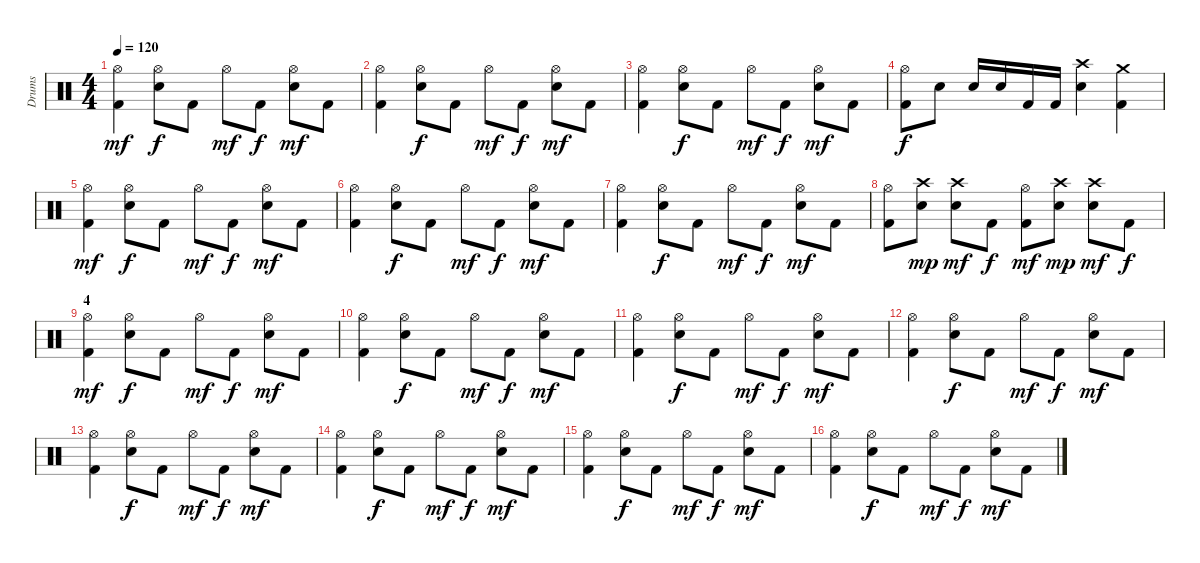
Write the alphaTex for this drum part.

\track ("Drums" "Drums") {instrument percussion}
\staff {score}
\articulation defaults
\ts (4 4)
\tempo 120
\clef neutral
\ks c
("Kick (hit) 2" "Hi-Hat (open)").4{dy mf} ("Hi-Hat (open)" "Electric Snare (hit)").8{dy f} "Kick (hit) 2".8 "Hi-Hat (open)".8{dy mf} "Kick (hit) 2".8{dy f} ("Electric Snare (hit)" "Hi-Hat (open)").8{dy mf} "Kick (hit) 2".8 |
("Kick (hit) 2" "Hi-Hat (open)").4 ("Hi-Hat (open)" "Electric Snare (hit)").8{dy f} "Kick (hit) 2".8 "Hi-Hat (open)".8{dy mf} "Kick (hit) 2".8{dy f} ("Electric Snare (hit)" "Hi-Hat (open)").8{dy mf} "Kick (hit) 2".8 |
("Kick (hit) 2" "Hi-Hat (open)").4 ("Hi-Hat (open)" "Electric Snare (hit)").8{dy f} "Kick (hit) 2".8 "Hi-Hat (open)".8{dy mf} "Kick (hit) 2".8{dy f} ("Electric Snare (hit)" "Hi-Hat (open)").8{dy mf} "Kick (hit) 2".8 |
("Kick (hit) 2" "Hi-Hat (open)").8{dy f} "Electric Snare (hit)".8 "Electric Snare (hit)".16 "Electric Snare (hit)".16 "Kick (hit) 2".16 "Kick (hit) 2".16 ("Crash high (hit)" "Electric Snare (hit)").4 ("Kick (hit) 2" "Crash medium (hit)").4 |
("Kick (hit) 2" "Hi-Hat (open)").4{dy mf} ("Hi-Hat (open)" "Electric Snare (hit)").8{dy f} "Kick (hit) 2".8 "Hi-Hat (open)".8{dy mf} "Kick (hit) 2".8{dy f} ("Electric Snare (hit)" "Hi-Hat (open)").8{dy mf} "Kick (hit) 2".8 |
("Kick (hit) 2" "Hi-Hat (open)").4 ("Hi-Hat (open)" "Electric Snare (hit)").8{dy f} "Kick (hit) 2".8 "Hi-Hat (open)".8{dy mf} "Kick (hit) 2".8{dy f} ("Electric Snare (hit)" "Hi-Hat (open)").8{dy mf} "Kick (hit) 2".8 |
("Kick (hit) 2" "Hi-Hat (open)").4 ("Hi-Hat (open)" "Electric Snare (hit)").8{dy f} "Kick (hit) 2".8 "Hi-Hat (open)".8{dy mf} "Kick (hit) 2".8{dy f} ("Electric Snare (hit)" "Hi-Hat (open)").8{dy mf} "Kick (hit) 2".8 |
("Kick (hit) 2" "Hi-Hat (open)").8 ("Electric Snare (hit)" "Crash high (hit)").8{dy mp} ("Electric Snare (hit)" "Crash high (hit)").8{dy mf} "Kick (hit) 2".8{dy f} ("Kick (hit) 2" "Hi-Hat (open)").8{dy mf} ("Electric Snare (hit)" "Crash high (hit)").8{dy mp} ("Electric Snare (hit)" "Crash high (hit)").8{dy mf} "Kick (hit) 2".8{dy f} |
\section ("" "4")
("Kick (hit) 2" "Hi-Hat (open)").4{dy mf} ("Hi-Hat (open)" "Electric Snare (hit)").8{dy f} "Kick (hit) 2".8 "Hi-Hat (open)".8{dy mf} "Kick (hit) 2".8{dy f} ("Electric Snare (hit)" "Hi-Hat (open)").8{dy mf} "Kick (hit) 2".8 |
("Kick (hit) 2" "Hi-Hat (open)").4 ("Hi-Hat (open)" "Electric Snare (hit)").8{dy f} "Kick (hit) 2".8 "Hi-Hat (open)".8{dy mf} "Kick (hit) 2".8{dy f} ("Electric Snare (hit)" "Hi-Hat (open)").8{dy mf} "Kick (hit) 2".8 |
("Kick (hit) 2" "Hi-Hat (open)").4 ("Hi-Hat (open)" "Electric Snare (hit)").8{dy f} "Kick (hit) 2".8 "Hi-Hat (open)".8{dy mf} "Kick (hit) 2".8{dy f} ("Electric Snare (hit)" "Hi-Hat (open)").8{dy mf} "Kick (hit) 2".8 |
("Kick (hit) 2" "Hi-Hat (open)").4 ("Hi-Hat (open)" "Electric Snare (hit)").8{dy f} "Kick (hit) 2".8 "Hi-Hat (open)".8{dy mf} "Kick (hit) 2".8{dy f} ("Electric Snare (hit)" "Hi-Hat (open)").8{dy mf} "Kick (hit) 2".8 |
("Kick (hit) 2" "Hi-Hat (open)").4 ("Hi-Hat (open)" "Electric Snare (hit)").8{dy f} "Kick (hit) 2".8 "Hi-Hat (open)".8{dy mf} "Kick (hit) 2".8{dy f} ("Electric Snare (hit)" "Hi-Hat (open)").8{dy mf} "Kick (hit) 2".8 |
("Kick (hit) 2" "Hi-Hat (open)").4 ("Hi-Hat (open)" "Electric Snare (hit)").8{dy f} "Kick (hit) 2".8 "Hi-Hat (open)".8{dy mf} "Kick (hit) 2".8{dy f} ("Electric Snare (hit)" "Hi-Hat (open)").8{dy mf} "Kick (hit) 2".8 |
("Kick (hit) 2" "Hi-Hat (open)").4 ("Hi-Hat (open)" "Electric Snare (hit)").8{dy f} "Kick (hit) 2".8 "Hi-Hat (open)".8{dy mf} "Kick (hit) 2".8{dy f} ("Electric Snare (hit)" "Hi-Hat (open)").8{dy mf} "Kick (hit) 2".8 |
("Kick (hit) 2" "Hi-Hat (open)").4 ("Hi-Hat (open)" "Electric Snare (hit)").8{dy f} "Kick (hit) 2".8 "Hi-Hat (open)".8{dy mf} "Kick (hit) 2".8{dy f} ("Electric Snare (hit)" "Hi-Hat (open)").8{dy mf} "Kick (hit) 2".8
